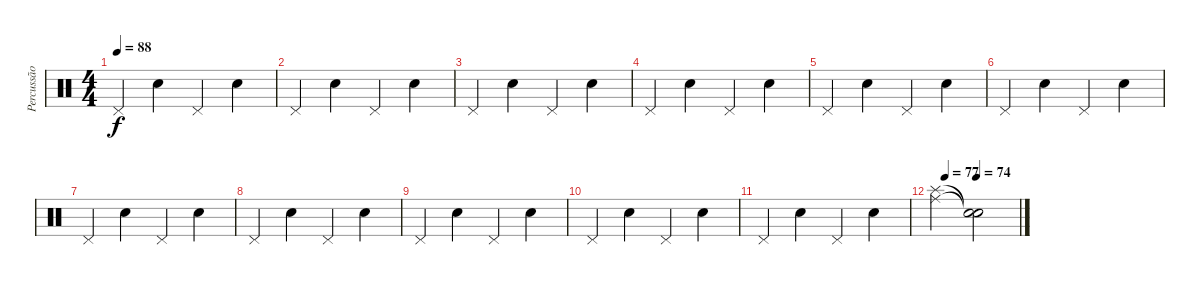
\track ("Percussão" "Percussão") {instrument percussion}
\staff {score}
\articulation defaults
\ts (4 4)
\tempo 88
\clef neutral
\ks c "Pedal Hi-Hat (hit)".4{dy f} "Electric Snare (hit)".4 "Pedal Hi-Hat (hit)".4 "Electric Snare (hit)".4
|
"Pedal Hi-Hat (hit)".4 "Electric Snare (hit)".4 "Pedal Hi-Hat (hit)".4 "Electric Snare (hit)".4 |
"Pedal Hi-Hat (hit)".4 "Electric Snare (hit)".4 "Pedal Hi-Hat (hit)".4 "Electric Snare (hit)".4 |
"Pedal Hi-Hat (hit)".4 "Electric Snare (hit)".4 "Pedal Hi-Hat (hit)".4 "Electric Snare (hit)".4 |
"Pedal Hi-Hat (hit)".4 "Electric Snare (hit)".4 "Pedal Hi-Hat (hit)".4 "Electric Snare (hit)".4 |
"Pedal Hi-Hat (hit)".4 "Electric Snare (hit)".4 "Pedal Hi-Hat (hit)".4 "Electric Snare (hit)".4 |
"Pedal Hi-Hat (hit)".4 "Electric Snare (hit)".4 "Pedal Hi-Hat (hit)".4 "Electric Snare (hit)".4 |
"Pedal Hi-Hat (hit)".4 "Electric Snare (hit)".4 "Pedal Hi-Hat (hit)".4 "Electric Snare (hit)".4 |
"Pedal Hi-Hat (hit)".4 "Electric Snare (hit)".4 "Pedal Hi-Hat (hit)".4 "Electric Snare (hit)".4 |
"Pedal Hi-Hat (hit)".4 "Electric Snare (hit)".4 "Pedal Hi-Hat (hit)".4 "Electric Snare (hit)".4 |
"Pedal Hi-Hat (hit)".4 "Electric Snare (hit)".4 "Pedal Hi-Hat (hit)".4 "Electric Snare (hit)".4 |
\tempo (77 0.125)
\tempo (74 0.5)
("Ride (middle)" "Splash (hit)").2 ("Snare (hit)"{t} "Snare (hit)"{t}).2
